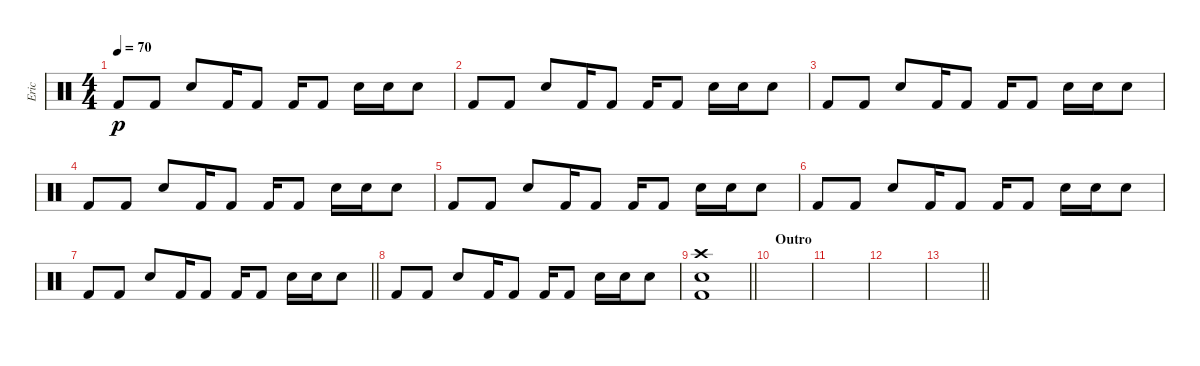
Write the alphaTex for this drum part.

\track ("Eric" "Eric") {instrument percussion}
\staff {score}
\articulation defaults
\ts (4 4)
\tempo 70
\clef neutral
\ks c "Kick (hit) 2".8{dy p} "Kick (hit) 2".8 "Electric Snare (hit)".8 "Kick (hit) 2".16 "Kick (hit) 2".8 "Kick (hit) 2".16 "Kick (hit) 2".8 "Electric Snare (hit)".16 "Electric Snare (hit)".16 "Electric Snare (hit)".8
|
"Kick (hit) 2".8 "Kick (hit) 2".8 "Electric Snare (hit)".8 "Kick (hit) 2".16 "Kick (hit) 2".8 "Kick (hit) 2".16 "Kick (hit) 2".8 "Electric Snare (hit)".16 "Electric Snare (hit)".16 "Electric Snare (hit)".8 |
"Kick (hit) 2".8 "Kick (hit) 2".8 "Electric Snare (hit)".8 "Kick (hit) 2".16 "Kick (hit) 2".8 "Kick (hit) 2".16 "Kick (hit) 2".8 "Electric Snare (hit)".16 "Electric Snare (hit)".16 "Electric Snare (hit)".8 |
"Kick (hit) 2".8 "Kick (hit) 2".8 "Electric Snare (hit)".8 "Kick (hit) 2".16 "Kick (hit) 2".8 "Kick (hit) 2".16 "Kick (hit) 2".8 "Electric Snare (hit)".16 "Electric Snare (hit)".16 "Electric Snare (hit)".8 |
"Kick (hit) 2".8 "Kick (hit) 2".8 "Electric Snare (hit)".8 "Kick (hit) 2".16 "Kick (hit) 2".8 "Kick (hit) 2".16 "Kick (hit) 2".8 "Electric Snare (hit)".16 "Electric Snare (hit)".16 "Electric Snare (hit)".8 |
"Kick (hit) 2".8 "Kick (hit) 2".8 "Electric Snare (hit)".8 "Kick (hit) 2".16 "Kick (hit) 2".8 "Kick (hit) 2".16 "Kick (hit) 2".8 "Electric Snare (hit)".16 "Electric Snare (hit)".16 "Electric Snare (hit)".8 |
\barLineRight lightlight "Kick (hit) 2".8 "Kick (hit) 2".8 "Electric Snare (hit)".8 "Kick (hit) 2".16 "Kick (hit) 2".8 "Kick (hit) 2".16 "Kick (hit) 2".8 "Electric Snare (hit)".16 "Electric Snare (hit)".16 "Electric Snare (hit)".8
|
"Kick (hit) 2".8 "Kick (hit) 2".8 "Electric Snare (hit)".8 "Kick (hit) 2".16 "Kick (hit) 2".8 "Kick (hit) 2".16 "Kick (hit) 2".8 "Electric Snare (hit)".16 "Electric Snare (hit)".16 "Electric Snare (hit)".8 |
\barLineRight lightlight
("Crash high (hit)" "Electric Snare (hit)" "Kick (hit) 2").1 |
\section ("" "Outro")
|
|
|
\barLineRight lightlight
